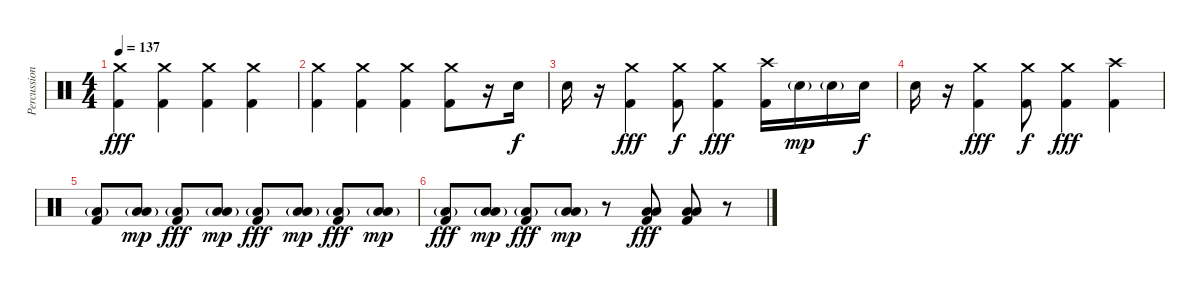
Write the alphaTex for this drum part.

\track ("Percussion" "Percussion") {instrument percussion}
\staff {score}
\articulation defaults
\ts (4 4)
\tempo 137
\clef neutral
\ks c
("Crash medium (hit)" "Kick (hit) 2").4{dy fff} ("Crash medium (hit)" "Kick (hit) 2").4 ("Crash medium (hit)" "Kick (hit) 2").4 ("Crash medium (hit)" "Kick (hit) 2").4 |
("Crash medium (hit)" "Kick (hit) 2").4 ("Crash medium (hit)" "Kick (hit) 2").4 ("Crash medium (hit)" "Kick (hit) 2").4 ("Crash medium (hit)" "Kick (hit) 2").8 r.16 "Electric Snare (hit)".16{dy f} |
"Electric Snare (hit)".16 r.16 ("Crash medium (hit)" "Kick (hit) 2").4{dy fff} ("Crash medium (hit)" "Kick (hit) 2").8{dy f} ("Crash medium (hit)" "Kick (hit) 2").4{dy fff} ("Crash high (hit)" "Kick (hit) 2").16 "Electric Snare (hit)"{g}.16{dy mp} "Electric Snare (hit)"{g}.16 "Electric Snare (hit)".16{dy f} |
"Electric Snare (hit)".16 r.16 ("Crash medium (hit)" "Kick (hit) 2").4{dy fff} ("Crash medium (hit)" "Kick (hit) 2").8{dy f} ("Crash medium (hit)" "Kick (hit) 2").4{dy fff} ("Crash high (hit)" "Kick (hit) 2").4 |
("Low Floor Tom (hit)"{g} "Kick (hit) 2").8 ("Low Floor Tom (hit)"{g} "Low Tom (hit)").8{dy mp} ("Low Floor Tom (hit)"{g} "Kick (hit) 2").8{dy fff} ("Low Floor Tom (hit)"{g} "Low Tom (hit)").8{dy mp} ("Low Floor Tom (hit)"{g} "Kick (hit) 2").8{dy fff} ("Low Floor Tom (hit)"{g} "Low Tom (hit)").8{dy mp} ("Low Floor Tom (hit)"{g} "Kick (hit) 2").8{dy fff} ("Low Floor Tom (hit)"{g} "Low Tom (hit)").8{dy mp} |
("Low Floor Tom (hit)"{g} "Kick (hit) 2").8{dy fff} ("Low Floor Tom (hit)"{g} "Low Tom (hit)").8{dy mp} ("Low Floor Tom (hit)"{g} "Kick (hit) 2").8{dy fff} ("Low Floor Tom (hit)"{g} "Low Tom (hit)").8{dy mp} r.8 ("Low Floor Tom (hit)" "Low Tom (hit)" "Kick (hit) 2").8{bd 60 dy fff} ("Low Floor Tom (hit)" "Low Tom (hit)" "Kick (hit) 2").8{bd 60} r.8
